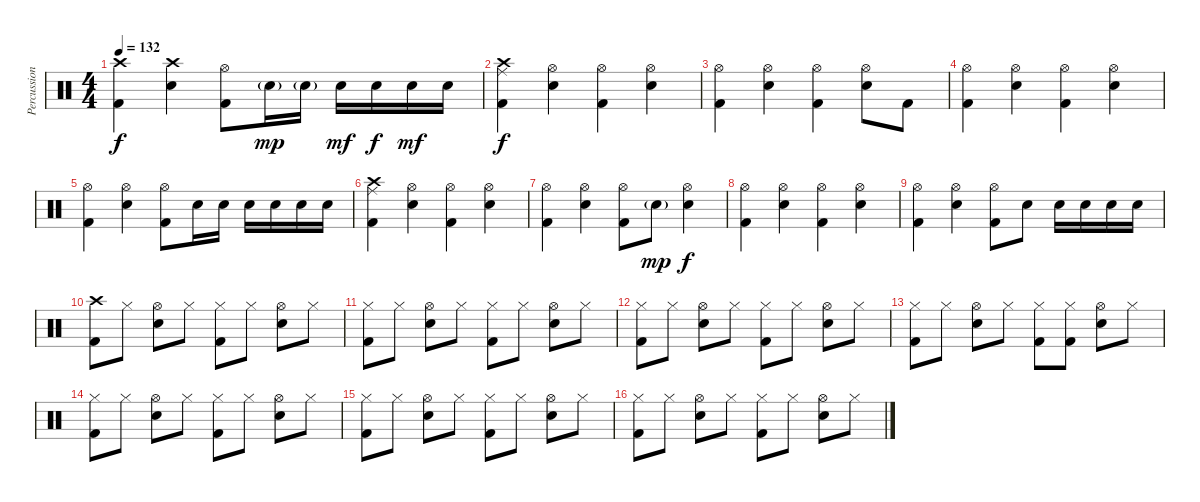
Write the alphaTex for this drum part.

\track ("Percussion" "Percussion") {instrument percussion}
\staff {score}
\articulation defaults
\ts (4 4)
\tempo 132
\clef neutral
\ks c
("Crash high (hit)" "Kick (hit) 2").4{dy f} ("Snare (hit) 2" "Crash high (hit)").4 ("Hi-Hat (open)" "Kick (hit) 2").8 "Snare (hit) 2"{g}.16{dy mp} "Snare (hit) 2"{g}.16 "Snare (hit) 2".16{dy mf} "Snare (hit) 2".16{dy f} "Snare (hit) 2".16{dy mf} "Snare (hit) 2".16 |
("Ride (middle)" "Crash high (hit)" "Kick (hit) 2").4{dy f} ("Hi-Hat (open)" "Snare (hit) 2").4 ("Hi-Hat (open)" "Kick (hit) 2").4 ("Hi-Hat (open)" "Snare (hit) 2").4 |
("Hi-Hat (open)" "Kick (hit) 2").4 ("Hi-Hat (open)" "Snare (hit) 2").4 ("Hi-Hat (open)" "Kick (hit) 2").4 ("Hi-Hat (open)" "Snare (hit) 2").8 "Kick (hit) 2".8 |
("Hi-Hat (open)" "Kick (hit) 2").4 ("Hi-Hat (open)" "Snare (hit) 2").4 ("Hi-Hat (open)" "Kick (hit) 2").4 ("Hi-Hat (open)" "Snare (hit) 2").4 |
("Hi-Hat (open)" "Kick (hit) 2").4 ("Hi-Hat (open)" "Snare (hit) 2").4 ("Hi-Hat (open)" "Kick (hit) 2").8 "Snare (hit) 2".16 "Snare (hit) 2".16 "Snare (hit) 2".16 "Snare (hit) 2".16 "Snare (hit) 2".16 "Snare (hit) 2".16 |
("Ride (middle)" "Crash high (hit)" "Kick (hit) 2").4 ("Hi-Hat (open)" "Snare (hit) 2").4 ("Hi-Hat (open)" "Kick (hit) 2").4 ("Hi-Hat (open)" "Snare (hit) 2").4 |
("Hi-Hat (open)" "Kick (hit) 2").4 ("Hi-Hat (open)" "Snare (hit) 2").4 ("Hi-Hat (open)" "Kick (hit) 2").8 "Snare (hit) 2"{g}.8{dy mp} ("Hi-Hat (open)" "Snare (hit) 2").4{dy f} |
("Hi-Hat (open)" "Kick (hit) 2").4 ("Hi-Hat (open)" "Snare (hit) 2").4 ("Hi-Hat (open)" "Kick (hit) 2").4 ("Hi-Hat (open)" "Snare (hit) 2").4 |
("Hi-Hat (open)" "Kick (hit) 2").4 ("Hi-Hat (open)" "Snare (hit) 2").4 ("Hi-Hat (open)" "Kick (hit) 2").8 "Snare (hit) 2".8 "Snare (hit) 2".16 "Snare (hit) 2".16 "Snare (hit) 2".16 "Snare (hit) 2".16 |
("Crash high (hit)" "Kick (hit) 2").8 "Hi-Hat (closed)".8 ("Hi-Hat (open)" "Snare (hit) 2").8 "Hi-Hat (closed)".8 ("Hi-Hat (closed)" "Kick (hit) 2").8 "Hi-Hat (closed)".8 ("Hi-Hat (open)" "Snare (hit) 2").8 "Hi-Hat (closed)".8 |
("Hi-Hat (closed)" "Kick (hit) 2").8 "Hi-Hat (closed)".8 ("Hi-Hat (open)" "Snare (hit) 2").8 "Hi-Hat (closed)".8 ("Hi-Hat (closed)" "Kick (hit) 2").8 "Hi-Hat (closed)".8 ("Hi-Hat (open)" "Snare (hit) 2").8 "Hi-Hat (closed)".8 |
("Hi-Hat (closed)" "Kick (hit) 2").8 "Hi-Hat (closed)".8 ("Hi-Hat (open)" "Snare (hit) 2").8 "Hi-Hat (closed)".8 ("Hi-Hat (closed)" "Kick (hit) 2").8 "Hi-Hat (closed)".8 ("Hi-Hat (open)" "Snare (hit) 2").8 "Hi-Hat (closed)".8 |
("Hi-Hat (closed)" "Kick (hit) 2").8 "Hi-Hat (closed)".8 ("Hi-Hat (open)" "Snare (hit) 2").8 "Hi-Hat (closed)".8 ("Hi-Hat (closed)" "Kick (hit) 2").8 ("Hi-Hat (closed)" "Kick (hit) 2").8 ("Hi-Hat (open)" "Snare (hit) 2").8 "Hi-Hat (closed)".8 |
("Hi-Hat (closed)" "Kick (hit) 2").8 "Hi-Hat (closed)".8 ("Hi-Hat (open)" "Snare (hit) 2").8 "Hi-Hat (closed)".8 ("Hi-Hat (closed)" "Kick (hit) 2").8 "Hi-Hat (closed)".8 ("Hi-Hat (open)" "Snare (hit) 2").8 "Hi-Hat (closed)".8 |
("Hi-Hat (closed)" "Kick (hit) 2").8 "Hi-Hat (closed)".8 ("Hi-Hat (open)" "Snare (hit) 2").8 "Hi-Hat (closed)".8 ("Hi-Hat (closed)" "Kick (hit) 2").8 "Hi-Hat (closed)".8 ("Hi-Hat (open)" "Snare (hit) 2").8 "Hi-Hat (closed)".8 |
("Hi-Hat (closed)" "Kick (hit) 2").8 "Hi-Hat (closed)".8 ("Hi-Hat (open)" "Snare (hit) 2").8 "Hi-Hat (closed)".8 ("Hi-Hat (closed)" "Kick (hit) 2").8 "Hi-Hat (closed)".8 ("Hi-Hat (open)" "Snare (hit) 2").8 "Hi-Hat (closed)".8
